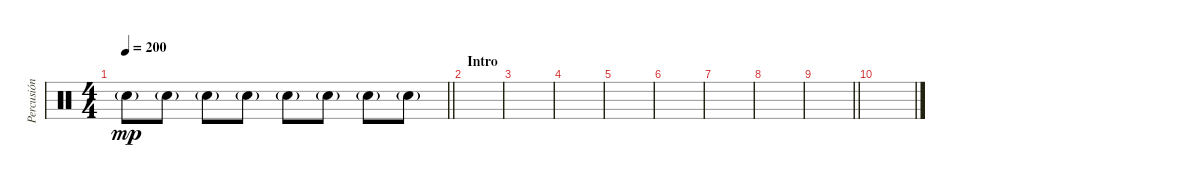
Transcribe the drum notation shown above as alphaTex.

\track ("Percusión" "Percusión") {instrument percussion}
\staff {score}
\articulation defaults
\ts (4 4)
\tempo 200
\clef neutral
\barLineRight lightlight
\ks c "Hand Clap (hit)"{g}.8{dy mp} "Hand Clap (hit)"{g}.8 "Hand Clap (hit)"{g}.8 "Hand Clap (hit)"{g}.8 "Hand Clap (hit)"{g}.8 "Hand Clap (hit)"{g}.8 "Hand Clap (hit)"{g}.8 "Hand Clap (hit)"{g}.8
|
\section ("" "Intro")
|
|
|
|
|
|
|
\barLineRight lightlight
|
\section ("" "")
